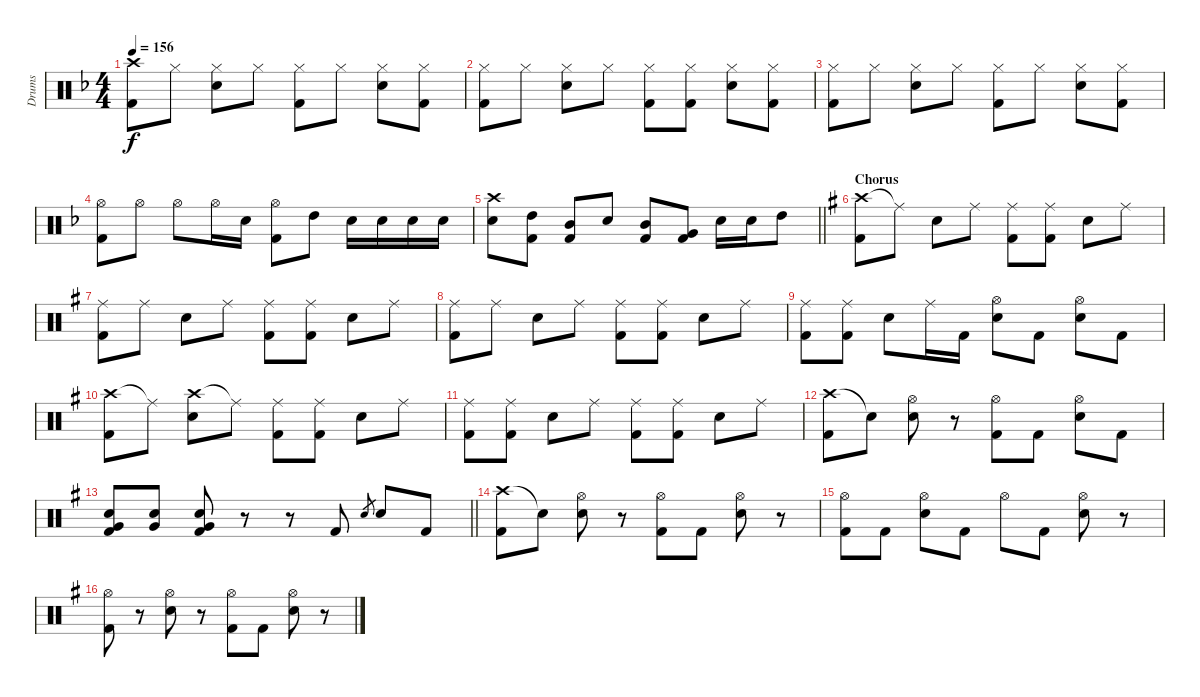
\track ("Drums" "Drums") {instrument percussion}
\staff {score}
\articulation defaults
\ts (4 4)
\tempo 156
\clef neutral
\ks f
("Crash high (hit)" "Kick (hit) 2").8{dy f} "Hi-Hat (closed)".8 ("Hi-Hat (closed)" "Snare (hit) 2").8 "Hi-Hat (closed)".8 ("Hi-Hat (closed)" "Kick (hit) 2").8 "Hi-Hat (closed)".8 ("Hi-Hat (closed)" "Snare (hit) 2").8 ("Hi-Hat (closed)" "Kick (hit) 2").8 |
("Hi-Hat (closed)" "Kick (hit) 2").8 "Hi-Hat (closed)".8 ("Hi-Hat (closed)" "Snare (hit) 2").8 "Hi-Hat (closed)".8 ("Hi-Hat (closed)" "Kick (hit) 2").8 ("Hi-Hat (closed)" "Kick (hit) 2").8 ("Hi-Hat (closed)" "Snare (hit) 2").8 ("Hi-Hat (closed)" "Kick (hit) 2").8 |
("Hi-Hat (closed)" "Kick (hit) 2").8 "Hi-Hat (closed)".8 ("Hi-Hat (closed)" "Snare (hit) 2").8 "Hi-Hat (closed)".8 ("Hi-Hat (closed)" "Kick (hit) 2").8 "Hi-Hat (closed)".8 ("Hi-Hat (closed)" "Snare (hit) 2").8 ("Hi-Hat (closed)" "Kick (hit) 2").8 |
("Hi-Hat (open)" "Kick (hit) 2").8 "Hi-Hat (open)".8 "Hi-Hat (open)".8 "Hi-Hat (open)".16 "Snare (hit) 2".16 ("Hi-Hat (open)" "Kick (hit) 2").8 "High Tom (hit)".8 "Snare (hit) 2".16 "Snare (hit) 2".16 "Snare (hit) 2".16 "Snare (hit) 2".16 |
\barLineRight lightlight
("Crash high (hit)" "Snare (hit) 2").8 ("High Tom (hit)" "Kick (hit) 2").8 ("Mid Tom (hit)" "Kick (hit) 2").8 "Snare (hit) 2".8 ("Mid Tom (hit)" "Kick (hit) 2").8 ("Very Low Tom (hit)" "Kick (hit) 2").8 "Snare (hit) 2".16 "Snare (hit) 2".16 "High Tom (hit)".8 |
\section ("" "Chorus")
\ks g
("Crash high (hit)" "Kick (hit) 2").8 "Ride (middle)"{t}.8 "Snare (hit) 2".8 "Ride (middle)".8 ("Ride (middle)" "Kick (hit) 2").8 ("Ride (middle)" "Kick (hit) 2").8 "Snare (hit) 2".8 "Ride (middle)".8 |
("Ride (middle)" "Kick (hit) 2").8 "Ride (middle)".8 "Snare (hit) 2".8 "Ride (middle)".8 ("Ride (middle)" "Kick (hit) 2").8 ("Ride (middle)" "Kick (hit) 2").8 "Snare (hit) 2".8 "Ride (middle)".8 |
("Ride (middle)" "Kick (hit) 2").8 "Ride (middle)".8 "Snare (hit) 2".8 "Ride (middle)".8 ("Ride (middle)" "Kick (hit) 2").8 ("Ride (middle)" "Kick (hit) 2").8 "Snare (hit) 2".8 "Ride (middle)".8 |
("Ride (middle)" "Kick (hit) 2").8 ("Ride (middle)" "Kick (hit) 2").8 "Snare (hit) 2".8 "Ride (middle)".16 "Kick (hit) 2".16 ("Hi-Hat (open)" "Snare (hit) 2").8 "Kick (hit) 2".8 ("Hi-Hat (open)" "Snare (hit) 2").8 "Kick (hit) 2".8 |
("Crash high (hit)" "Kick (hit) 2").8 "Ride (middle)"{t}.8 ("Crash high (hit)" "Snare (hit) 2").8 "Ride (middle)"{t}.8 ("Ride (middle)" "Kick (hit) 2").8 ("Ride (middle)" "Kick (hit) 2").8 "Snare (hit) 2".8 "Ride (middle)".8 |
("Ride (middle)" "Kick (hit) 2").8 ("Ride (middle)" "Kick (hit) 2").8 "Snare (hit) 2".8 "Ride (middle)".8 ("Ride (middle)" "Kick (hit) 2").8 ("Ride (middle)" "Kick (hit) 2").8 "Snare (hit) 2".8 "Ride (middle)".8 |
("Crash high (hit)" "Kick (hit) 2").8 "Snare (hit)"{t}.8 ("Hi-Hat (open)" "Snare (hit) 2").8 r.8 ("Hi-Hat (open)" "Kick (hit) 2").8 "Kick (hit) 2".8 ("Hi-Hat (open)" "Snare (hit) 2").8 "Kick (hit) 2".8 |
\barLineRight lightlight
("Snare (hit) 2" "Very Low Tom (hit)" "Kick (hit) 2").8 ("Snare (hit) 2" "Very Low Tom (hit)").8 ("Snare (hit) 2" "Very Low Tom (hit)" "Kick (hit) 2").8 r.8 r.8 "Kick (hit) 2".8 "Snare (hit) 2".8{gr} "Snare (hit) 2".8 "Kick (hit) 2".8 |
("Crash high (hit)" "Kick (hit) 2").8 "Snare (hit)"{t}.8 ("Hi-Hat (open)" "Snare (hit) 2").8 r.8 ("Hi-Hat (open)" "Kick (hit) 2").8 "Kick (hit) 2".8 ("Hi-Hat (open)" "Snare (hit) 2").8 r.8 |
("Hi-Hat (open)" "Kick (hit) 2").8 "Kick (hit) 2".8 ("Hi-Hat (open)" "Snare (hit) 2").8 "Kick (hit) 2".8 "Hi-Hat (open)".8 "Kick (hit) 2".8 ("Hi-Hat (open)" "Snare (hit) 2").8 r.8 |
("Hi-Hat (open)" "Kick (hit) 2").8 r.8 ("Hi-Hat (open)" "Snare (hit) 2").8 r.8 ("Hi-Hat (open)" "Kick (hit) 2").8 "Kick (hit) 2".8 ("Hi-Hat (open)" "Snare (hit) 2").8 r.8
